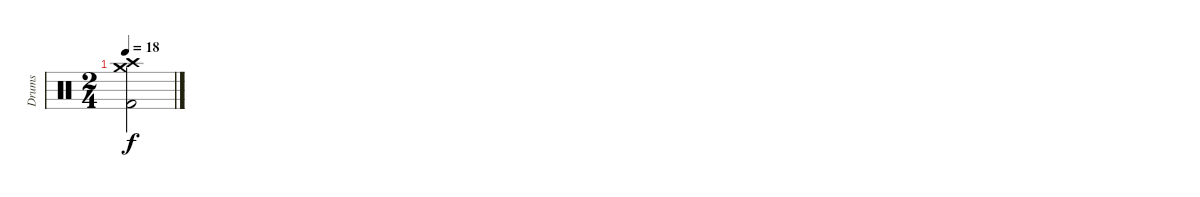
\track ("Drums" "Drums") {instrument percussion}
\staff {score}
\articulation defaults
\ts (2 4)
\tempo 18
\clef neutral
\ks c
("Crash medium (hit)" "Crash high (hit)" "Kick (hit) 2").2{dy f}
